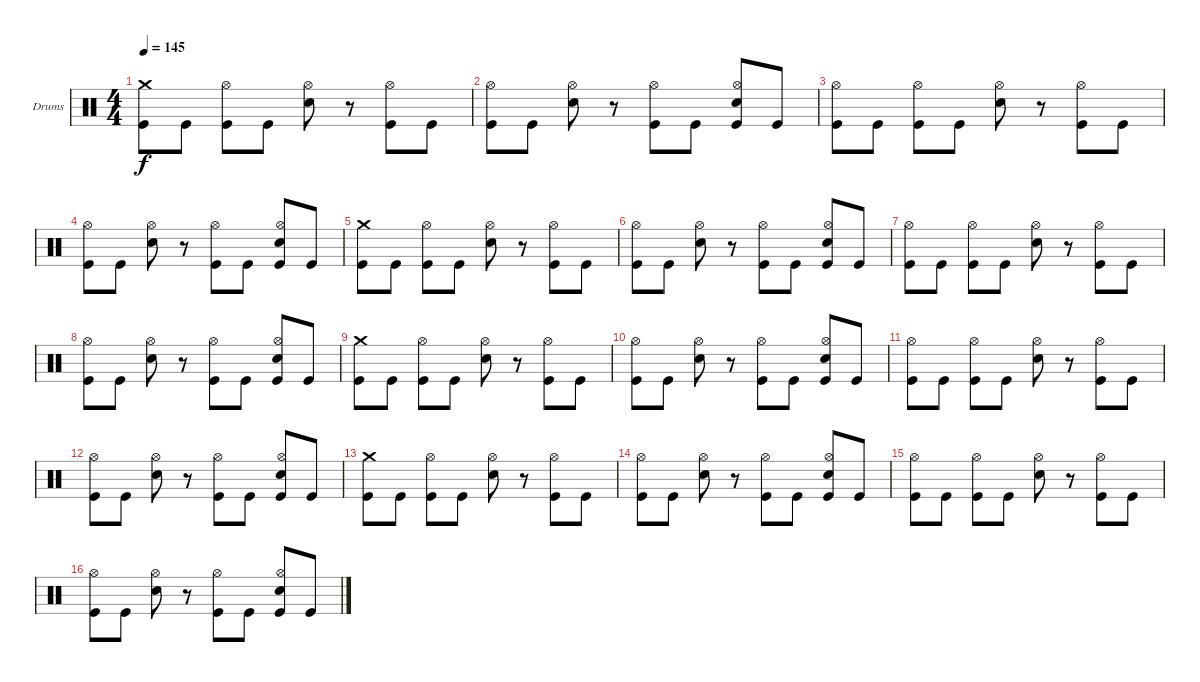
\bracketExtendMode groupsimilarinstruments
\firstSystemTrackNameOrientation horizontal
\otherSystemsTrackNameOrientation horizontal
\track ("Drumkit" "Drums") {instrument percussion}
\staff {score}
\articulation defaults
\ts (4 4)
\tempo 145
\clef neutral
\ks c
("Crash medium (hit)" "Kick (hit)").8{dy f} "Kick (hit)".8 ("Hi-Hat (open)" "Kick (hit)").8 "Kick (hit)".8 ("Hi-Hat (open)" "Snare (hit) 2").8 r.8 ("Hi-Hat (open)" "Kick (hit)").8 "Kick (hit)".8 |
("Hi-Hat (open)" "Kick (hit)").8 "Kick (hit)".8 ("Hi-Hat (open)" "Snare (hit) 2").8 r.8 ("Hi-Hat (open)" "Kick (hit)").8 "Kick (hit)".8 ("Hi-Hat (open)" "Snare (hit) 2" "Kick (hit)").8 "Kick (hit)".8 |
("Hi-Hat (open)" "Kick (hit)").8 "Kick (hit)".8 ("Hi-Hat (open)" "Kick (hit)").8 "Kick (hit)".8 ("Hi-Hat (open)" "Snare (hit) 2").8 r.8 ("Hi-Hat (open)" "Kick (hit)").8 "Kick (hit)".8 |
("Hi-Hat (open)" "Kick (hit)").8 "Kick (hit)".8 ("Hi-Hat (open)" "Snare (hit) 2").8 r.8 ("Hi-Hat (open)" "Kick (hit)").8 "Kick (hit)".8 ("Hi-Hat (open)" "Snare (hit) 2" "Kick (hit)").8 "Kick (hit)".8 |
("Crash medium (hit)" "Kick (hit)").8 "Kick (hit)".8 ("Hi-Hat (open)" "Kick (hit)").8 "Kick (hit)".8 ("Hi-Hat (open)" "Snare (hit) 2").8 r.8 ("Hi-Hat (open)" "Kick (hit)").8 "Kick (hit)".8 |
("Hi-Hat (open)" "Kick (hit)").8 "Kick (hit)".8 ("Hi-Hat (open)" "Snare (hit) 2").8 r.8 ("Hi-Hat (open)" "Kick (hit)").8 "Kick (hit)".8 ("Hi-Hat (open)" "Snare (hit) 2" "Kick (hit)").8 "Kick (hit)".8 |
("Hi-Hat (open)" "Kick (hit)").8 "Kick (hit)".8 ("Hi-Hat (open)" "Kick (hit)").8 "Kick (hit)".8 ("Hi-Hat (open)" "Snare (hit) 2").8 r.8 ("Hi-Hat (open)" "Kick (hit)").8 "Kick (hit)".8 |
("Hi-Hat (open)" "Kick (hit)").8 "Kick (hit)".8 ("Hi-Hat (open)" "Snare (hit) 2").8 r.8 ("Hi-Hat (open)" "Kick (hit)").8 "Kick (hit)".8 ("Hi-Hat (open)" "Snare (hit) 2" "Kick (hit)").8 "Kick (hit)".8 |
("Crash medium (hit)" "Kick (hit)").8 "Kick (hit)".8 ("Hi-Hat (open)" "Kick (hit)").8 "Kick (hit)".8 ("Hi-Hat (open)" "Snare (hit) 2").8 r.8 ("Hi-Hat (open)" "Kick (hit)").8 "Kick (hit)".8 |
("Hi-Hat (open)" "Kick (hit)").8 "Kick (hit)".8 ("Hi-Hat (open)" "Snare (hit) 2").8 r.8 ("Hi-Hat (open)" "Kick (hit)").8 "Kick (hit)".8 ("Hi-Hat (open)" "Snare (hit) 2" "Kick (hit)").8 "Kick (hit)".8 |
("Hi-Hat (open)" "Kick (hit)").8 "Kick (hit)".8 ("Hi-Hat (open)" "Kick (hit)").8 "Kick (hit)".8 ("Hi-Hat (open)" "Snare (hit) 2").8 r.8 ("Hi-Hat (open)" "Kick (hit)").8 "Kick (hit)".8 |
("Hi-Hat (open)" "Kick (hit)").8 "Kick (hit)".8 ("Hi-Hat (open)" "Snare (hit) 2").8 r.8 ("Hi-Hat (open)" "Kick (hit)").8 "Kick (hit)".8 ("Hi-Hat (open)" "Snare (hit) 2" "Kick (hit)").8 "Kick (hit)".8 |
("Crash medium (hit)" "Kick (hit)").8 "Kick (hit)".8 ("Hi-Hat (open)" "Kick (hit)").8 "Kick (hit)".8 ("Hi-Hat (open)" "Snare (hit) 2").8 r.8 ("Hi-Hat (open)" "Kick (hit)").8 "Kick (hit)".8 |
("Hi-Hat (open)" "Kick (hit)").8 "Kick (hit)".8 ("Hi-Hat (open)" "Snare (hit) 2").8 r.8 ("Hi-Hat (open)" "Kick (hit)").8 "Kick (hit)".8 ("Hi-Hat (open)" "Snare (hit) 2" "Kick (hit)").8 "Kick (hit)".8 |
("Hi-Hat (open)" "Kick (hit)").8 "Kick (hit)".8 ("Hi-Hat (open)" "Kick (hit)").8 "Kick (hit)".8 ("Hi-Hat (open)" "Snare (hit) 2").8 r.8 ("Hi-Hat (open)" "Kick (hit)").8 "Kick (hit)".8 |
("Hi-Hat (open)" "Kick (hit)").8 "Kick (hit)".8 ("Hi-Hat (open)" "Snare (hit) 2").8 r.8 ("Hi-Hat (open)" "Kick (hit)").8 "Kick (hit)".8 ("Hi-Hat (open)" "Snare (hit) 2" "Kick (hit)").8 "Kick (hit)".8
